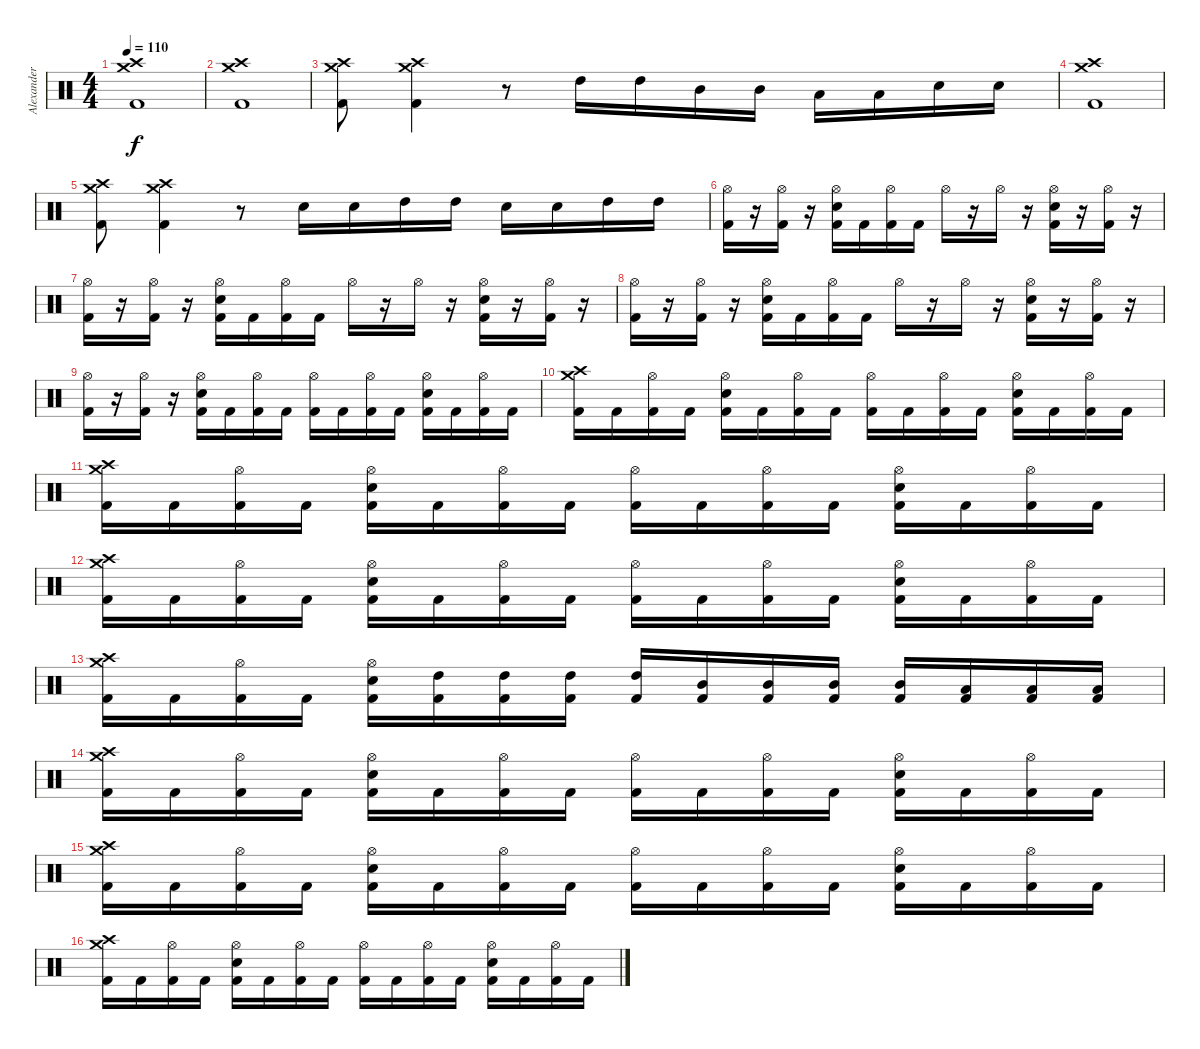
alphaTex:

\track ("Alexander C." "Alexander ") {instrument percussion}
\staff {score}
\articulation defaults
\ts (4 4)
\tempo 110
\clef neutral
\ks c
("Crash high (hit)" "Crash medium (hit)" "Kick (hit) 2").1{dy f} |
("Crash high (hit)" "Crash medium (hit)" "Kick (hit) 2").1 |
("Crash high (hit)" "Crash medium (hit)" "Kick (hit) 2").8 ("Crash high (hit)" "Crash medium (hit)" "Kick (hit) 2").4 r.8 "High Tom (hit)".16 "High Tom (hit)".16 "Mid Tom (hit)".16 "Mid Tom (hit)".16 "Low Tom (hit)".16 "Low Tom (hit)".16 "Snare (hit) 2".16 "Snare (hit) 2".16 |
("Crash high (hit)" "Crash medium (hit)" "Kick (hit) 2").1 |
("Crash high (hit)" "Crash medium (hit)" "Kick (hit) 2").8 ("Crash high (hit)" "Crash medium (hit)" "Kick (hit) 2").4 r.8 "Snare (hit) 2".16 "Snare (hit) 2".16 "High Tom (hit)".16 "High Tom (hit)".16 "Snare (hit) 2".16 "Snare (hit) 2".16 "High Tom (hit)".16 "High Tom (hit)".16 |
("Hi-Hat (open)" "Kick (hit) 2").16 r.16 ("Hi-Hat (open)" "Kick (hit) 2").16 r.16 ("Hi-Hat (open)" "Snare (hit) 2" "Kick (hit) 2").16 "Kick (hit) 2".16 ("Hi-Hat (open)" "Kick (hit) 2").16 "Kick (hit) 2".16 "Hi-Hat (open)".16 r.16 "Hi-Hat (open)".16 r.16 ("Hi-Hat (open)" "Snare (hit) 2" "Kick (hit) 2").16 r.16 ("Hi-Hat (open)" "Kick (hit) 2").16 r.16 |
("Hi-Hat (open)" "Kick (hit) 2").16 r.16 ("Hi-Hat (open)" "Kick (hit) 2").16 r.16 ("Hi-Hat (open)" "Snare (hit) 2" "Kick (hit) 2").16 "Kick (hit) 2".16 ("Hi-Hat (open)" "Kick (hit) 2").16 "Kick (hit) 2".16 "Hi-Hat (open)".16 r.16 "Hi-Hat (open)".16 r.16 ("Hi-Hat (open)" "Snare (hit) 2" "Kick (hit) 2").16 r.16 ("Hi-Hat (open)" "Kick (hit) 2").16 r.16 |
("Hi-Hat (open)" "Kick (hit) 2").16 r.16 ("Hi-Hat (open)" "Kick (hit) 2").16 r.16 ("Hi-Hat (open)" "Snare (hit) 2" "Kick (hit) 2").16 "Kick (hit) 2".16 ("Hi-Hat (open)" "Kick (hit) 2").16 "Kick (hit) 2".16 "Hi-Hat (open)".16 r.16 "Hi-Hat (open)".16 r.16 ("Hi-Hat (open)" "Snare (hit) 2" "Kick (hit) 2").16 r.16 ("Hi-Hat (open)" "Kick (hit) 2").16 r.16 |
("Hi-Hat (open)" "Kick (hit) 2").16 r.16 ("Hi-Hat (open)" "Kick (hit) 2").16 r.16 ("Hi-Hat (open)" "Snare (hit) 2" "Kick (hit) 2").16 "Kick (hit) 2".16 ("Hi-Hat (open)" "Kick (hit) 2").16 "Kick (hit) 2".16 ("Hi-Hat (open)" "Kick (hit) 2").16 "Kick (hit) 2".16 ("Hi-Hat (open)" "Kick (hit) 2").16 "Kick (hit) 2".16 ("Hi-Hat (open)" "Snare (hit) 2" "Kick (hit) 2").16 "Kick (hit) 2".16 ("Hi-Hat (open)" "Kick (hit) 2").16 "Kick (hit) 2".16 |
("Crash high (hit)" "Crash medium (hit)" "Kick (hit) 2").16 "Kick (hit) 2".16 ("Hi-Hat (open)" "Kick (hit) 2").16 "Kick (hit) 2".16 ("Hi-Hat (open)" "Snare (hit) 2" "Kick (hit) 2").16 "Kick (hit) 2".16 ("Hi-Hat (open)" "Kick (hit) 2").16 "Kick (hit) 2".16 ("Hi-Hat (open)" "Kick (hit) 2").16 "Kick (hit) 2".16 ("Hi-Hat (open)" "Kick (hit) 2").16 "Kick (hit) 2".16 ("Hi-Hat (open)" "Snare (hit) 2" "Kick (hit) 2").16 "Kick (hit) 2".16 ("Hi-Hat (open)" "Kick (hit) 2").16 "Kick (hit) 2".16 |
("Crash high (hit)" "Crash medium (hit)" "Kick (hit) 2").16 "Kick (hit) 2".16 ("Hi-Hat (open)" "Kick (hit) 2").16 "Kick (hit) 2".16 ("Hi-Hat (open)" "Snare (hit) 2" "Kick (hit) 2").16 "Kick (hit) 2".16 ("Hi-Hat (open)" "Kick (hit) 2").16 "Kick (hit) 2".16 ("Hi-Hat (open)" "Kick (hit) 2").16 "Kick (hit) 2".16 ("Hi-Hat (open)" "Kick (hit) 2").16 "Kick (hit) 2".16 ("Hi-Hat (open)" "Snare (hit) 2" "Kick (hit) 2").16 "Kick (hit) 2".16 ("Hi-Hat (open)" "Kick (hit) 2").16 "Kick (hit) 2".16 |
("Crash high (hit)" "Crash medium (hit)" "Kick (hit) 2").16 "Kick (hit) 2".16 ("Hi-Hat (open)" "Kick (hit) 2").16 "Kick (hit) 2".16 ("Hi-Hat (open)" "Snare (hit) 2" "Kick (hit) 2").16 "Kick (hit) 2".16 ("Hi-Hat (open)" "Kick (hit) 2").16 "Kick (hit) 2".16 ("Hi-Hat (open)" "Kick (hit) 2").16 "Kick (hit) 2".16 ("Hi-Hat (open)" "Kick (hit) 2").16 "Kick (hit) 2".16 ("Hi-Hat (open)" "Snare (hit) 2" "Kick (hit) 2").16 "Kick (hit) 2".16 ("Hi-Hat (open)" "Kick (hit) 2").16 "Kick (hit) 2".16 |
("Crash high (hit)" "Crash medium (hit)" "Kick (hit) 2").16 "Kick (hit) 2".16 ("Hi-Hat (open)" "Kick (hit) 2").16 "Kick (hit) 2".16 ("Hi-Hat (open)" "Snare (hit) 2" "Kick (hit) 2").16 ("High Tom (hit)" "Kick (hit) 2").16 ("High Tom (hit)" "Kick (hit) 2").16 ("High Tom (hit)" "Kick (hit) 2").16 ("High Tom (hit)" "Kick (hit) 2").16 ("Mid Tom (hit)" "Kick (hit) 2").16 ("Mid Tom (hit)" "Kick (hit) 2").16 ("Mid Tom (hit)" "Kick (hit) 2").16 ("Mid Tom (hit)" "Kick (hit) 2").16 ("Low Tom (hit)" "Kick (hit) 2").16 ("Low Tom (hit)" "Kick (hit) 2").16 ("Low Tom (hit)" "Kick (hit) 2").16 |
("Crash high (hit)" "Crash medium (hit)" "Kick (hit) 2").16 "Kick (hit) 2".16 ("Hi-Hat (open)" "Kick (hit) 2").16 "Kick (hit) 2".16 ("Hi-Hat (open)" "Snare (hit) 2" "Kick (hit) 2").16 "Kick (hit) 2".16 ("Hi-Hat (open)" "Kick (hit) 2").16 "Kick (hit) 2".16 ("Hi-Hat (open)" "Kick (hit) 2").16 "Kick (hit) 2".16 ("Hi-Hat (open)" "Kick (hit) 2").16 "Kick (hit) 2".16 ("Hi-Hat (open)" "Snare (hit) 2" "Kick (hit) 2").16 "Kick (hit) 2".16 ("Hi-Hat (open)" "Kick (hit) 2").16 "Kick (hit) 2".16 |
("Crash high (hit)" "Crash medium (hit)" "Kick (hit) 2").16 "Kick (hit) 2".16 ("Hi-Hat (open)" "Kick (hit) 2").16 "Kick (hit) 2".16 ("Hi-Hat (open)" "Snare (hit) 2" "Kick (hit) 2").16 "Kick (hit) 2".16 ("Hi-Hat (open)" "Kick (hit) 2").16 "Kick (hit) 2".16 ("Hi-Hat (open)" "Kick (hit) 2").16 "Kick (hit) 2".16 ("Hi-Hat (open)" "Kick (hit) 2").16 "Kick (hit) 2".16 ("Hi-Hat (open)" "Snare (hit) 2" "Kick (hit) 2").16 "Kick (hit) 2".16 ("Hi-Hat (open)" "Kick (hit) 2").16 "Kick (hit) 2".16 |
("Crash high (hit)" "Crash medium (hit)" "Kick (hit) 2").16 "Kick (hit) 2".16 ("Hi-Hat (open)" "Kick (hit) 2").16 "Kick (hit) 2".16 ("Hi-Hat (open)" "Snare (hit) 2" "Kick (hit) 2").16 "Kick (hit) 2".16 ("Hi-Hat (open)" "Kick (hit) 2").16 "Kick (hit) 2".16 ("Hi-Hat (open)" "Kick (hit) 2").16 "Kick (hit) 2".16 ("Hi-Hat (open)" "Kick (hit) 2").16 "Kick (hit) 2".16 ("Hi-Hat (open)" "Snare (hit) 2" "Kick (hit) 2").16 "Kick (hit) 2".16 ("Hi-Hat (open)" "Kick (hit) 2").16 "Kick (hit) 2".16
